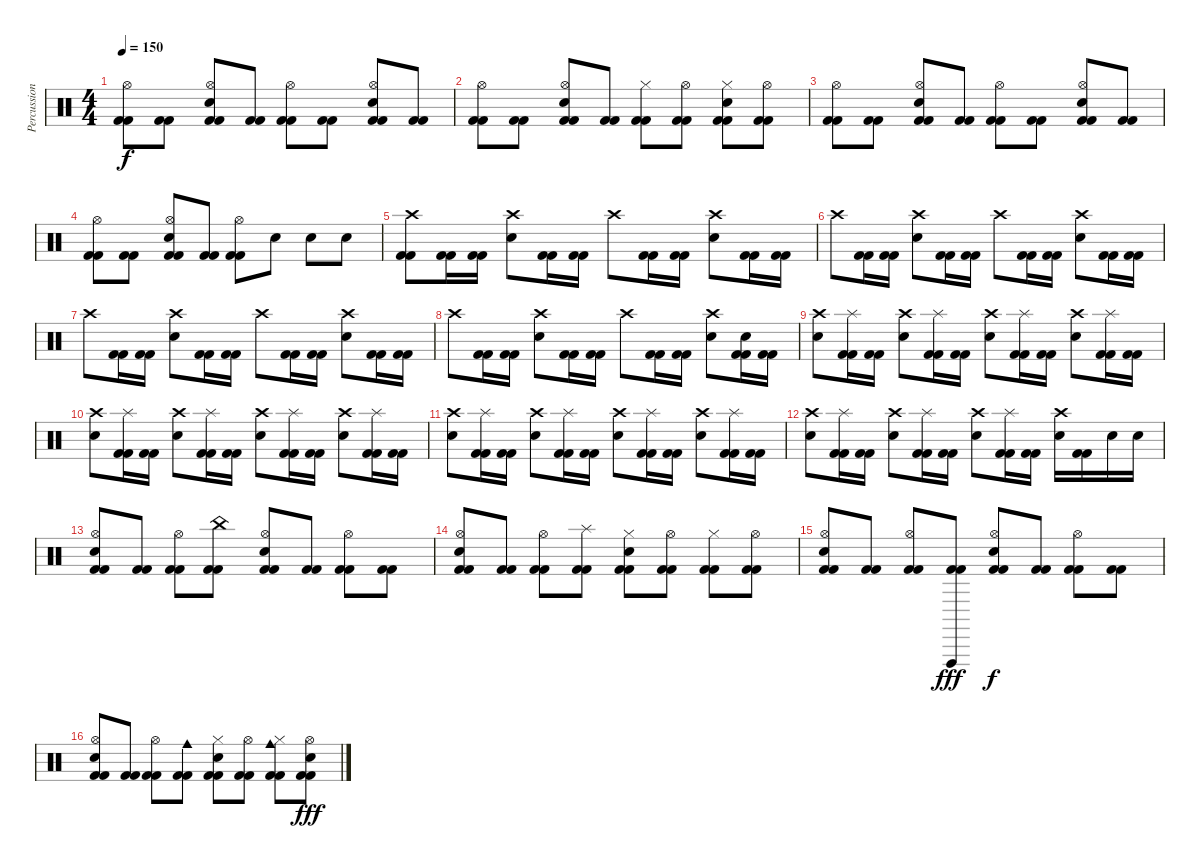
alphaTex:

\track ("Percussions" "Percussion") {instrument percussion}
\staff {score}
\articulation defaults
\ts (4 4)
\tempo 150
\clef neutral
\ks c
("Kick (hit) 2" "Kick (hit) 2" "Hi-Hat (open)").8{dy f} ("Kick (hit) 2" "Kick (hit) 2").8 ("Kick (hit) 2" "Kick (hit) 2" "Electric Snare (hit)" "Hi-Hat (open)").8 ("Kick (hit) 2" "Kick (hit) 2").8 ("Kick (hit) 2" "Kick (hit) 2" "Hi-Hat (open)").8 ("Kick (hit) 2" "Kick (hit) 2").8 ("Kick (hit) 2" "Kick (hit) 2" "Electric Snare (hit)" "Hi-Hat (open)").8 ("Kick (hit) 2" "Kick (hit) 2").8 |
("Kick (hit) 2" "Kick (hit) 2" "Hi-Hat (open)").8 ("Kick (hit) 2" "Kick (hit) 2").8 ("Kick (hit) 2" "Kick (hit) 2" "Electric Snare (hit)" "Hi-Hat (open)").8 ("Kick (hit) 2" "Kick (hit) 2").8 ("Kick (hit) 2" "Kick (hit) 2" "Hi-Hat (closed)").8 ("Kick (hit) 2" "Kick (hit) 2" "Hi-Hat (open)").8 ("Kick (hit) 2" "Kick (hit) 2" "Electric Snare (hit)" "Hi-Hat (closed)").8 ("Kick (hit) 2" "Kick (hit) 2" "Hi-Hat (open)").8 |
("Kick (hit) 2" "Kick (hit) 2" "Hi-Hat (open)").8 ("Kick (hit) 2" "Kick (hit) 2").8 ("Kick (hit) 2" "Kick (hit) 2" "Electric Snare (hit)" "Hi-Hat (open)").8 ("Kick (hit) 2" "Kick (hit) 2").8 ("Kick (hit) 2" "Kick (hit) 2" "Hi-Hat (open)").8 ("Kick (hit) 2" "Kick (hit) 2").8 ("Kick (hit) 2" "Kick (hit) 2" "Electric Snare (hit)" "Hi-Hat (open)").8 ("Kick (hit) 2" "Kick (hit) 2").8 |
("Kick (hit) 2" "Kick (hit) 2" "Hi-Hat (open)").8 ("Kick (hit) 2" "Kick (hit) 2").8 ("Kick (hit) 2" "Kick (hit) 2" "Electric Snare (hit)" "Hi-Hat (open)").8 ("Kick (hit) 2" "Kick (hit) 2").8 ("Kick (hit) 2" "Kick (hit) 2" "Hi-Hat (open)").8 "Electric Snare (hit)".8 "Electric Snare (hit)".8 "Electric Snare (hit)".8 |
("Kick (hit) 2" "Kick (hit) 2" "Crash high (hit)").8 ("Kick (hit) 2" "Kick (hit) 2").16 ("Kick (hit) 2" "Kick (hit) 2").16 ("Electric Snare (hit)" "Crash high (hit)").8 ("Kick (hit) 2" "Kick (hit) 2").16 ("Kick (hit) 2" "Kick (hit) 2").16 "Crash high (hit)".8 ("Kick (hit) 2" "Kick (hit) 2").16 ("Kick (hit) 2" "Kick (hit) 2").16 ("Electric Snare (hit)" "Crash high (hit)").8 ("Kick (hit) 2" "Kick (hit) 2").16 ("Kick (hit) 2" "Kick (hit) 2").16 |
"Crash high (hit)".8 ("Kick (hit) 2" "Kick (hit) 2").16 ("Kick (hit) 2" "Kick (hit) 2").16 ("Electric Snare (hit)" "Crash high (hit)").8 ("Kick (hit) 2" "Kick (hit) 2").16 ("Kick (hit) 2" "Kick (hit) 2").16 "Crash high (hit)".8 ("Kick (hit) 2" "Kick (hit) 2").16 ("Kick (hit) 2" "Kick (hit) 2").16 ("Electric Snare (hit)" "Crash high (hit)").8 ("Kick (hit) 2" "Kick (hit) 2").16 ("Kick (hit) 2" "Kick (hit) 2").16 |
"Crash high (hit)".8 ("Kick (hit) 2" "Kick (hit) 2").16 ("Kick (hit) 2" "Kick (hit) 2").16 ("Electric Snare (hit)" "Crash high (hit)").8 ("Kick (hit) 2" "Kick (hit) 2").16 ("Kick (hit) 2" "Kick (hit) 2").16 "Crash high (hit)".8 ("Kick (hit) 2" "Kick (hit) 2").16 ("Kick (hit) 2" "Kick (hit) 2").16 ("Electric Snare (hit)" "Crash high (hit)").8 ("Kick (hit) 2" "Kick (hit) 2").16 ("Kick (hit) 2" "Kick (hit) 2").16 |
"Crash high (hit)".8 ("Kick (hit) 2" "Kick (hit) 2").16 ("Kick (hit) 2" "Kick (hit) 2").16 ("Electric Snare (hit)" "Crash high (hit)").8 ("Kick (hit) 2" "Kick (hit) 2").16 ("Kick (hit) 2" "Kick (hit) 2").16 "Crash high (hit)".8 ("Kick (hit) 2" "Kick (hit) 2").16 ("Kick (hit) 2" "Kick (hit) 2").16 ("Electric Snare (hit)" "Crash high (hit)").8 ("Kick (hit) 2" "Kick (hit) 2" "Electric Snare (hit)").16 ("Kick (hit) 2" "Kick (hit) 2").16 |
("Electric Snare (hit)" "Crash high (hit)").8 ("Kick (hit) 2" "Kick (hit) 2" "Splash (hit)").16 ("Kick (hit) 2" "Kick (hit) 2").16 ("Electric Snare (hit)" "Crash high (hit)").8 ("Kick (hit) 2" "Kick (hit) 2" "Splash (hit)").16 ("Kick (hit) 2" "Kick (hit) 2").16 ("Electric Snare (hit)" "Crash high (hit)").8 ("Kick (hit) 2" "Kick (hit) 2" "Splash (hit)").16 ("Kick (hit) 2" "Kick (hit) 2").16 ("Electric Snare (hit)" "Crash high (hit)").8 ("Kick (hit) 2" "Kick (hit) 2" "Splash (hit)").16 ("Kick (hit) 2" "Kick (hit) 2").16 |
("Electric Snare (hit)" "Crash high (hit)").8 ("Kick (hit) 2" "Kick (hit) 2" "Splash (hit)").16 ("Kick (hit) 2" "Kick (hit) 2").16 ("Electric Snare (hit)" "Crash high (hit)").8 ("Kick (hit) 2" "Kick (hit) 2" "Splash (hit)").16 ("Kick (hit) 2" "Kick (hit) 2").16 ("Electric Snare (hit)" "Crash high (hit)").8 ("Kick (hit) 2" "Kick (hit) 2" "Splash (hit)").16 ("Kick (hit) 2" "Kick (hit) 2").16 ("Electric Snare (hit)" "Crash high (hit)").8 ("Kick (hit) 2" "Kick (hit) 2" "Splash (hit)").16 ("Kick (hit) 2" "Kick (hit) 2").16 |
("Electric Snare (hit)" "Crash high (hit)").8 ("Kick (hit) 2" "Kick (hit) 2" "Splash (hit)").16 ("Kick (hit) 2" "Kick (hit) 2").16 ("Electric Snare (hit)" "Crash high (hit)").8 ("Kick (hit) 2" "Kick (hit) 2" "Splash (hit)").16 ("Kick (hit) 2" "Kick (hit) 2").16 ("Electric Snare (hit)" "Crash high (hit)").8 ("Kick (hit) 2" "Kick (hit) 2" "Splash (hit)").16 ("Kick (hit) 2" "Kick (hit) 2").16 ("Electric Snare (hit)" "Crash high (hit)").8 ("Kick (hit) 2" "Kick (hit) 2" "Splash (hit)").16 ("Kick (hit) 2" "Kick (hit) 2").16 |
("Electric Snare (hit)" "Crash high (hit)").8 ("Kick (hit) 2" "Kick (hit) 2" "Splash (hit)").16 ("Kick (hit) 2" "Kick (hit) 2").16 ("Electric Snare (hit)" "Crash high (hit)").8 ("Kick (hit) 2" "Kick (hit) 2" "Splash (hit)").16 ("Kick (hit) 2" "Kick (hit) 2").16 ("Electric Snare (hit)" "Crash high (hit)").8 ("Kick (hit) 2" "Kick (hit) 2" "Splash (hit)").16 ("Kick (hit) 2" "Kick (hit) 2").16 ("Electric Snare (hit)" "Crash high (hit)").16 ("Kick (hit) 2" "Kick (hit) 2").16 "Electric Snare (hit)".16 "Electric Snare (hit)".16 |
("Kick (hit) 2" "Kick (hit) 2" "Electric Snare (hit)" "Hi-Hat (open)").8 ("Kick (hit) 2" "Kick (hit) 2").8 ("Kick (hit) 2" "Kick (hit) 2" "Hi-Hat (open)").8 ("Kick (hit) 2" "Kick (hit) 2" "China (hit)").8 ("Kick (hit) 2" "Kick (hit) 2" "Electric Snare (hit)" "Hi-Hat (open)").8 ("Kick (hit) 2" "Kick (hit) 2").8 ("Kick (hit) 2" "Kick (hit) 2" "Hi-Hat (open)").8 ("Kick (hit) 2" "Kick (hit) 2").8 |
("Kick (hit) 2" "Kick (hit) 2" "Electric Snare (hit)" "Hi-Hat (open)").8 ("Kick (hit) 2" "Kick (hit) 2").8 ("Kick (hit) 2" "Kick (hit) 2" "Hi-Hat (open)").8 ("Kick (hit) 2" "Kick (hit) 2" "Splash (hit)").8 ("Kick (hit) 2" "Kick (hit) 2" "Electric Snare (hit)" "Hi-Hat (closed)").8 ("Kick (hit) 2" "Kick (hit) 2" "Hi-Hat (open)").8 ("Kick (hit) 2" "Kick (hit) 2" "Hi-Hat (closed)").8 ("Kick (hit) 2" "Kick (hit) 2" "Hi-Hat (open)").8 |
("Kick (hit) 2" "Kick (hit) 2" "Electric Snare (hit)" "Hi-Hat (open)").8 ("Kick (hit) 2" "Kick (hit) 2").8 ("Kick (hit) 2" "Kick (hit) 2" "Hi-Hat (open)").8 ("Kick (hit) 2" "Kick (hit) 2" "Vibraslap (hit)").8{dy fff} ("Kick (hit) 2" "Kick (hit) 2" "Electric Snare (hit)" "Hi-Hat (open)").8{dy f} ("Kick (hit) 2" "Kick (hit) 2").8 ("Kick (hit) 2" "Kick (hit) 2" "Hi-Hat (open)").8 ("Kick (hit) 2" "Kick (hit) 2").8 |
("Kick (hit) 2" "Kick (hit) 2" "Electric Snare (hit)" "Hi-Hat (open)").8 ("Kick (hit) 2" "Kick (hit) 2").8 ("Kick (hit) 2" "Kick (hit) 2" "Hi-Hat (open)").8 ("Kick (hit) 2" "Kick (hit) 2" "Cowbell medium (hit)").8 ("Kick (hit) 2" "Kick (hit) 2" "Electric Snare (hit)" "Hi-Hat (closed)").8 ("Kick (hit) 2" "Kick (hit) 2" "Hi-Hat (open)").8 ("Kick (hit) 2" "Kick (hit) 2" "Cowbell medium (hit)" "Hi-Hat (closed)").8 ("Kick (hit) 2" "Kick (hit) 2" "Electric Snare (hit)" "Hi-Hat (open)").8{dy fff}
